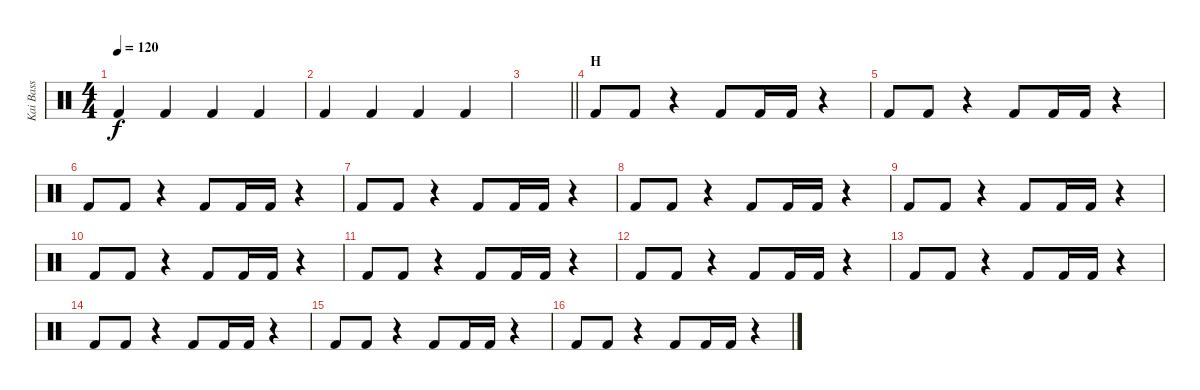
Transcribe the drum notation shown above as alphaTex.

\track ("Kai Bass" "Kai Bass") {instrument percussion}
\staff {score}
\articulation defaults
\ts (4 4)
\tempo 120
\clef neutral
\ks c "Kick (hit) 2".4{dy f} "Kick (hit) 2".4 "Kick (hit) 2".4 "Kick (hit) 2".4
|
"Kick (hit) 2".4 "Kick (hit) 2".4 "Kick (hit) 2".4 "Kick (hit) 2".4 |
\barLineRight lightlight
|
\section ("" "H")
"Kick (hit) 2".8 "Kick (hit) 2".8 r.4 "Kick (hit) 2".8 "Kick (hit) 2".16 "Kick (hit) 2".16 r.4 |
"Kick (hit) 2".8 "Kick (hit) 2".8 r.4 "Kick (hit) 2".8 "Kick (hit) 2".16 "Kick (hit) 2".16 r.4 |
"Kick (hit) 2".8 "Kick (hit) 2".8 r.4 "Kick (hit) 2".8 "Kick (hit) 2".16 "Kick (hit) 2".16 r.4 |
"Kick (hit) 2".8 "Kick (hit) 2".8 r.4 "Kick (hit) 2".8 "Kick (hit) 2".16 "Kick (hit) 2".16 r.4 |
"Kick (hit) 2".8 "Kick (hit) 2".8 r.4 "Kick (hit) 2".8 "Kick (hit) 2".16 "Kick (hit) 2".16 r.4 |
"Kick (hit) 2".8 "Kick (hit) 2".8 r.4 "Kick (hit) 2".8 "Kick (hit) 2".16 "Kick (hit) 2".16 r.4 |
"Kick (hit) 2".8 "Kick (hit) 2".8 r.4 "Kick (hit) 2".8 "Kick (hit) 2".16 "Kick (hit) 2".16 r.4 |
"Kick (hit) 2".8 "Kick (hit) 2".8 r.4 "Kick (hit) 2".8 "Kick (hit) 2".16 "Kick (hit) 2".16 r.4 |
"Kick (hit) 2".8 "Kick (hit) 2".8 r.4 "Kick (hit) 2".8 "Kick (hit) 2".16 "Kick (hit) 2".16 r.4 |
"Kick (hit) 2".8 "Kick (hit) 2".8 r.4 "Kick (hit) 2".8 "Kick (hit) 2".16 "Kick (hit) 2".16 r.4 |
"Kick (hit) 2".8 "Kick (hit) 2".8 r.4 "Kick (hit) 2".8 "Kick (hit) 2".16 "Kick (hit) 2".16 r.4 |
"Kick (hit) 2".8 "Kick (hit) 2".8 r.4 "Kick (hit) 2".8 "Kick (hit) 2".16 "Kick (hit) 2".16 r.4 |
"Kick (hit) 2".8 "Kick (hit) 2".8 r.4 "Kick (hit) 2".8 "Kick (hit) 2".16 "Kick (hit) 2".16 r.4
